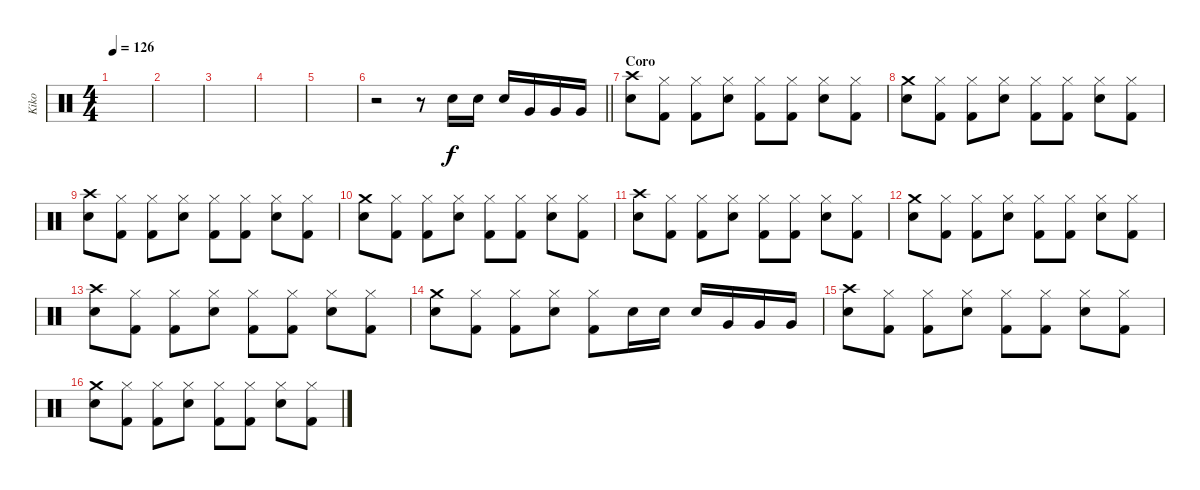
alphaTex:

\track ("Kiko" "Kiko") {instrument percussion}
\staff {score}
\articulation defaults
\ts (4 4)
\tempo 126
\clef neutral
\ks c
|
|
|
|
|
\barLineRight lightlight
r.2 r.8 "Electric Snare (hit)".16 "Electric Snare (hit)".16 "Electric Snare (hit)".16 "Very Low Tom (hit)".16 "Very Low Tom (hit)".16 "Very Low Tom (hit)".16 |
\section ("" "Coro")
("Crash high (hit)" "Electric Snare (hit)").8 ("Hi-Hat (closed)" "Kick (hit) 2").8 ("Hi-Hat (closed)" "Kick (hit) 2").8 ("Hi-Hat (closed)" "Electric Snare (hit)").8 ("Hi-Hat (closed)" "Kick (hit) 2").8 ("Hi-Hat (closed)" "Kick (hit) 2").8 ("Hi-Hat (closed)" "Electric Snare (hit)").8 ("Hi-Hat (closed)" "Kick (hit) 2").8 |
("Crash medium (hit)" "Electric Snare (hit)").8 ("Hi-Hat (closed)" "Kick (hit) 2").8 ("Hi-Hat (closed)" "Kick (hit) 2").8 ("Hi-Hat (closed)" "Electric Snare (hit)").8 ("Hi-Hat (closed)" "Kick (hit) 2").8 ("Hi-Hat (closed)" "Kick (hit) 2").8 ("Hi-Hat (closed)" "Electric Snare (hit)").8 ("Hi-Hat (closed)" "Kick (hit) 2").8 |
("Crash high (hit)" "Electric Snare (hit)").8 ("Hi-Hat (closed)" "Kick (hit) 2").8 ("Hi-Hat (closed)" "Kick (hit) 2").8 ("Hi-Hat (closed)" "Electric Snare (hit)").8 ("Hi-Hat (closed)" "Kick (hit) 2").8 ("Hi-Hat (closed)" "Kick (hit) 2").8 ("Hi-Hat (closed)" "Electric Snare (hit)").8 ("Hi-Hat (closed)" "Kick (hit) 2").8 |
("Crash medium (hit)" "Electric Snare (hit)").8 ("Hi-Hat (closed)" "Kick (hit) 2").8 ("Hi-Hat (closed)" "Kick (hit) 2").8 ("Hi-Hat (closed)" "Electric Snare (hit)").8 ("Hi-Hat (closed)" "Kick (hit) 2").8 ("Hi-Hat (closed)" "Kick (hit) 2").8 ("Hi-Hat (closed)" "Electric Snare (hit)").8 ("Hi-Hat (closed)" "Kick (hit) 2").8 |
("Crash high (hit)" "Electric Snare (hit)").8 ("Hi-Hat (closed)" "Kick (hit) 2").8 ("Hi-Hat (closed)" "Kick (hit) 2").8 ("Hi-Hat (closed)" "Electric Snare (hit)").8 ("Hi-Hat (closed)" "Kick (hit) 2").8 ("Hi-Hat (closed)" "Kick (hit) 2").8 ("Hi-Hat (closed)" "Electric Snare (hit)").8 ("Hi-Hat (closed)" "Kick (hit) 2").8 |
("Crash medium (hit)" "Electric Snare (hit)").8 ("Hi-Hat (closed)" "Kick (hit) 2").8 ("Hi-Hat (closed)" "Kick (hit) 2").8 ("Hi-Hat (closed)" "Electric Snare (hit)").8 ("Hi-Hat (closed)" "Kick (hit) 2").8 ("Hi-Hat (closed)" "Kick (hit) 2").8 ("Hi-Hat (closed)" "Electric Snare (hit)").8 ("Hi-Hat (closed)" "Kick (hit) 2").8 |
("Crash high (hit)" "Electric Snare (hit)").8 ("Hi-Hat (closed)" "Kick (hit) 2").8 ("Hi-Hat (closed)" "Kick (hit) 2").8 ("Hi-Hat (closed)" "Electric Snare (hit)").8 ("Hi-Hat (closed)" "Kick (hit) 2").8 ("Hi-Hat (closed)" "Kick (hit) 2").8 ("Hi-Hat (closed)" "Electric Snare (hit)").8 ("Hi-Hat (closed)" "Kick (hit) 2").8 |
("Crash medium (hit)" "Electric Snare (hit)").8 ("Hi-Hat (closed)" "Kick (hit) 2").8 ("Hi-Hat (closed)" "Kick (hit) 2").8 ("Hi-Hat (closed)" "Electric Snare (hit)").8 ("Hi-Hat (closed)" "Kick (hit) 2").8 "Electric Snare (hit)".16 "Electric Snare (hit)".16 "Electric Snare (hit)".16 "Very Low Tom (hit)".16 "Very Low Tom (hit)".16 "Very Low Tom (hit)".16 |
("Crash high (hit)" "Electric Snare (hit)").8 ("Hi-Hat (closed)" "Kick (hit) 2").8 ("Hi-Hat (closed)" "Kick (hit) 2").8 ("Hi-Hat (closed)" "Electric Snare (hit)").8 ("Hi-Hat (closed)" "Kick (hit) 2").8 ("Hi-Hat (closed)" "Kick (hit) 2").8 ("Hi-Hat (closed)" "Electric Snare (hit)").8 ("Hi-Hat (closed)" "Kick (hit) 2").8 |
("Crash medium (hit)" "Electric Snare (hit)").8 ("Hi-Hat (closed)" "Kick (hit) 2").8 ("Hi-Hat (closed)" "Kick (hit) 2").8 ("Hi-Hat (closed)" "Electric Snare (hit)").8 ("Hi-Hat (closed)" "Kick (hit) 2").8 ("Hi-Hat (closed)" "Kick (hit) 2").8 ("Hi-Hat (closed)" "Electric Snare (hit)").8 ("Hi-Hat (closed)" "Kick (hit) 2").8
